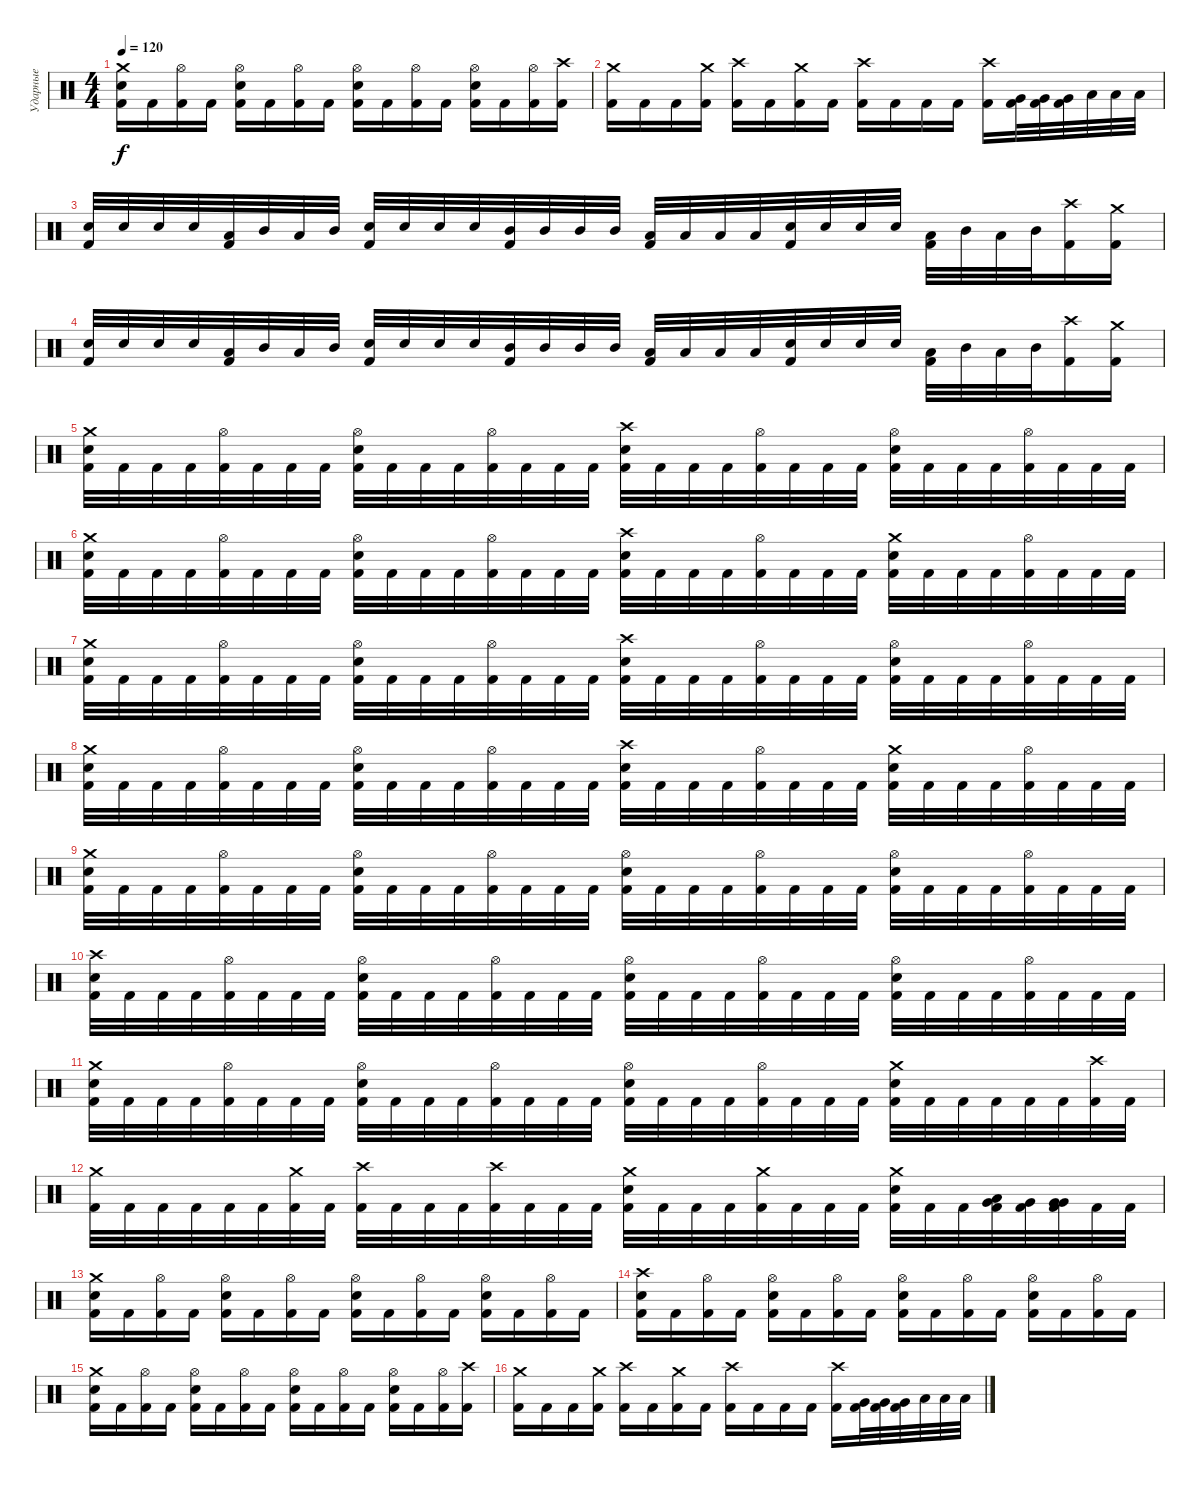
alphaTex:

\track ("Ударные" "Ударные") {instrument percussion}
\staff {score}
\articulation defaults
\ts (4 4)
\tempo 120
\clef neutral
\ks c
("Crash medium (hit)" "Electric Snare (hit)" "Kick (hit) 2").16{dy f} "Kick (hit) 2".16 ("Hi-Hat (open)" "Kick (hit) 2").16 "Kick (hit) 2".16 ("Hi-Hat (open)" "Electric Snare (hit)" "Kick (hit) 2").16 "Kick (hit) 2".16 ("Hi-Hat (open)" "Kick (hit) 2").16 "Kick (hit) 2".16 ("Hi-Hat (open)" "Electric Snare (hit)" "Kick (hit) 2").16 "Kick (hit) 2".16 ("Hi-Hat (open)" "Kick (hit) 2").16 "Kick (hit) 2".16 ("Hi-Hat (open)" "Electric Snare (hit)" "Kick (hit) 2").16 "Kick (hit) 2".16 ("Hi-Hat (open)" "Kick (hit) 2").16 ("Crash high (hit)" "Kick (hit) 2").16 |
("Crash medium (hit)" "Kick (hit) 2").16 "Kick (hit) 2".16 "Kick (hit) 2".16 ("Crash medium (hit)" "Kick (hit) 2").16 ("Crash high (hit)" "Kick (hit) 2").16 "Kick (hit) 2".16 ("Crash medium (hit)" "Kick (hit) 2").16 "Kick (hit) 2".16 ("Crash high (hit)" "Kick (hit) 2").16 "Kick (hit) 2".16 "Kick (hit) 2".16 "Kick (hit) 2".16 ("Crash high (hit)" "Kick (hit) 2").16 ("Very Low Tom (hit)" "Kick (hit) 2").32 ("Very Low Tom (hit)" "Kick (hit) 2").32 ("Very Low Tom (hit)" "Kick (hit) 2").32 "Low Tom (hit)".32 "Low Tom (hit)".32 "Low Tom (hit)".32 |
("Electric Snare (hit)" "Kick (hit) 2").32 "Electric Snare (hit)".32 "Electric Snare (hit)".32 "Electric Snare (hit)".32 ("Low Tom (hit)" "Kick (hit) 2").32 "Mid Tom (hit)".32 "Low Tom (hit)".32 "Mid Tom (hit)".32 ("Electric Snare (hit)" "Kick (hit) 2").32 "Electric Snare (hit)".32 "Electric Snare (hit)".32 "Electric Snare (hit)".32 ("Mid Tom (hit)" "Kick (hit) 2").32 "Mid Tom (hit)".32 "Mid Tom (hit)".32 "Mid Tom (hit)".32 ("Low Tom (hit)" "Kick (hit) 2").32 "Low Tom (hit)".32 "Low Tom (hit)".32 "Low Tom (hit)".32 ("Electric Snare (hit)" "Kick (hit) 2").32 "Electric Snare (hit)".32 "Electric Snare (hit)".32 "Electric Snare (hit)".32 ("Low Tom (hit)" "Kick (hit) 2").32 "Mid Tom (hit)".32 "Low Tom (hit)".32 "Mid Tom (hit)".32 ("Crash high (hit)" "Kick (hit) 2").16 ("Crash medium (hit)" "Kick (hit) 2").16 |
("Electric Snare (hit)" "Kick (hit) 2").32 "Electric Snare (hit)".32 "Electric Snare (hit)".32 "Electric Snare (hit)".32 ("Low Tom (hit)" "Kick (hit) 2").32 "Mid Tom (hit)".32 "Low Tom (hit)".32 "Mid Tom (hit)".32 ("Electric Snare (hit)" "Kick (hit) 2").32 "Electric Snare (hit)".32 "Electric Snare (hit)".32 "Electric Snare (hit)".32 ("Mid Tom (hit)" "Kick (hit) 2").32 "Mid Tom (hit)".32 "Mid Tom (hit)".32 "Mid Tom (hit)".32 ("Low Tom (hit)" "Kick (hit) 2").32 "Low Tom (hit)".32 "Low Tom (hit)".32 "Low Tom (hit)".32 ("Electric Snare (hit)" "Kick (hit) 2").32 "Electric Snare (hit)".32 "Electric Snare (hit)".32 "Electric Snare (hit)".32 ("Low Tom (hit)" "Kick (hit) 2").32 "Mid Tom (hit)".32 "Low Tom (hit)".32 "Mid Tom (hit)".32 ("Crash high (hit)" "Kick (hit) 2").16 ("Crash medium (hit)" "Kick (hit) 2").16 |
("Crash medium (hit)" "Electric Snare (hit)" "Kick (hit) 2").32 "Kick (hit) 2".32 "Kick (hit) 2".32 "Kick (hit) 2".32 ("Hi-Hat (open)" "Kick (hit) 2").32 "Kick (hit) 2".32 "Kick (hit) 2".32 "Kick (hit) 2".32 ("Hi-Hat (open)" "Electric Snare (hit)" "Kick (hit) 2").32 "Kick (hit) 2".32 "Kick (hit) 2".32 "Kick (hit) 2".32 ("Hi-Hat (open)" "Kick (hit) 2").32 "Kick (hit) 2".32 "Kick (hit) 2".32 "Kick (hit) 2".32 ("Crash high (hit)" "Electric Snare (hit)" "Kick (hit) 2").32 "Kick (hit) 2".32 "Kick (hit) 2".32 "Kick (hit) 2".32 ("Hi-Hat (open)" "Kick (hit) 2").32 "Kick (hit) 2".32 "Kick (hit) 2".32 "Kick (hit) 2".32 ("Hi-Hat (open)" "Electric Snare (hit)" "Kick (hit) 2").32 "Kick (hit) 2".32 "Kick (hit) 2".32 "Kick (hit) 2".32 ("Hi-Hat (open)" "Kick (hit) 2").32 "Kick (hit) 2".32 "Kick (hit) 2".32 "Kick (hit) 2".32 |
("Crash medium (hit)" "Electric Snare (hit)" "Kick (hit) 2").32 "Kick (hit) 2".32 "Kick (hit) 2".32 "Kick (hit) 2".32 ("Hi-Hat (open)" "Kick (hit) 2").32 "Kick (hit) 2".32 "Kick (hit) 2".32 "Kick (hit) 2".32 ("Hi-Hat (open)" "Electric Snare (hit)" "Kick (hit) 2").32 "Kick (hit) 2".32 "Kick (hit) 2".32 "Kick (hit) 2".32 ("Hi-Hat (open)" "Kick (hit) 2").32 "Kick (hit) 2".32 "Kick (hit) 2".32 "Kick (hit) 2".32 ("Crash high (hit)" "Electric Snare (hit)" "Kick (hit) 2").32 "Kick (hit) 2".32 "Kick (hit) 2".32 "Kick (hit) 2".32 ("Hi-Hat (open)" "Kick (hit) 2").32 "Kick (hit) 2".32 "Kick (hit) 2".32 "Kick (hit) 2".32 ("Crash medium (hit)" "Electric Snare (hit)" "Kick (hit) 2").32 "Kick (hit) 2".32 "Kick (hit) 2".32 "Kick (hit) 2".32 ("Hi-Hat (open)" "Kick (hit) 2").32 "Kick (hit) 2".32 "Kick (hit) 2".32 "Kick (hit) 2".32 |
("Crash medium (hit)" "Electric Snare (hit)" "Kick (hit) 2").32 "Kick (hit) 2".32 "Kick (hit) 2".32 "Kick (hit) 2".32 ("Hi-Hat (open)" "Kick (hit) 2").32 "Kick (hit) 2".32 "Kick (hit) 2".32 "Kick (hit) 2".32 ("Hi-Hat (open)" "Electric Snare (hit)" "Kick (hit) 2").32 "Kick (hit) 2".32 "Kick (hit) 2".32 "Kick (hit) 2".32 ("Hi-Hat (open)" "Kick (hit) 2").32 "Kick (hit) 2".32 "Kick (hit) 2".32 "Kick (hit) 2".32 ("Crash high (hit)" "Electric Snare (hit)" "Kick (hit) 2").32 "Kick (hit) 2".32 "Kick (hit) 2".32 "Kick (hit) 2".32 ("Hi-Hat (open)" "Kick (hit) 2").32 "Kick (hit) 2".32 "Kick (hit) 2".32 "Kick (hit) 2".32 ("Hi-Hat (open)" "Electric Snare (hit)" "Kick (hit) 2").32 "Kick (hit) 2".32 "Kick (hit) 2".32 "Kick (hit) 2".32 ("Hi-Hat (open)" "Kick (hit) 2").32 "Kick (hit) 2".32 "Kick (hit) 2".32 "Kick (hit) 2".32 |
("Crash medium (hit)" "Electric Snare (hit)" "Kick (hit) 2").32 "Kick (hit) 2".32 "Kick (hit) 2".32 "Kick (hit) 2".32 ("Hi-Hat (open)" "Kick (hit) 2").32 "Kick (hit) 2".32 "Kick (hit) 2".32 "Kick (hit) 2".32 ("Hi-Hat (open)" "Electric Snare (hit)" "Kick (hit) 2").32 "Kick (hit) 2".32 "Kick (hit) 2".32 "Kick (hit) 2".32 ("Hi-Hat (open)" "Kick (hit) 2").32 "Kick (hit) 2".32 "Kick (hit) 2".32 "Kick (hit) 2".32 ("Crash high (hit)" "Electric Snare (hit)" "Kick (hit) 2").32 "Kick (hit) 2".32 "Kick (hit) 2".32 "Kick (hit) 2".32 ("Hi-Hat (open)" "Kick (hit) 2").32 "Kick (hit) 2".32 "Kick (hit) 2".32 "Kick (hit) 2".32 ("Crash medium (hit)" "Electric Snare (hit)" "Kick (hit) 2").32 "Kick (hit) 2".32 "Kick (hit) 2".32 "Kick (hit) 2".32 ("Hi-Hat (open)" "Kick (hit) 2").32 "Kick (hit) 2".32 "Kick (hit) 2".32 "Kick (hit) 2".32 |
("Crash medium (hit)" "Electric Snare (hit)" "Kick (hit) 2").32 "Kick (hit) 2".32 "Kick (hit) 2".32 "Kick (hit) 2".32 ("Hi-Hat (open)" "Kick (hit) 2").32 "Kick (hit) 2".32 "Kick (hit) 2".32 "Kick (hit) 2".32 ("Hi-Hat (open)" "Electric Snare (hit)" "Kick (hit) 2").32 "Kick (hit) 2".32 "Kick (hit) 2".32 "Kick (hit) 2".32 ("Hi-Hat (open)" "Kick (hit) 2").32 "Kick (hit) 2".32 "Kick (hit) 2".32 "Kick (hit) 2".32 ("Hi-Hat (open)" "Electric Snare (hit)" "Kick (hit) 2").32 "Kick (hit) 2".32 "Kick (hit) 2".32 "Kick (hit) 2".32 ("Hi-Hat (open)" "Kick (hit) 2").32 "Kick (hit) 2".32 "Kick (hit) 2".32 "Kick (hit) 2".32 ("Hi-Hat (open)" "Electric Snare (hit)" "Kick (hit) 2").32 "Kick (hit) 2".32 "Kick (hit) 2".32 "Kick (hit) 2".32 ("Hi-Hat (open)" "Kick (hit) 2").32 "Kick (hit) 2".32 "Kick (hit) 2".32 "Kick (hit) 2".32 |
("Crash high (hit)" "Electric Snare (hit)" "Kick (hit) 2").32 "Kick (hit) 2".32 "Kick (hit) 2".32 "Kick (hit) 2".32 ("Hi-Hat (open)" "Kick (hit) 2").32 "Kick (hit) 2".32 "Kick (hit) 2".32 "Kick (hit) 2".32 ("Hi-Hat (open)" "Electric Snare (hit)" "Kick (hit) 2").32 "Kick (hit) 2".32 "Kick (hit) 2".32 "Kick (hit) 2".32 ("Hi-Hat (open)" "Kick (hit) 2").32 "Kick (hit) 2".32 "Kick (hit) 2".32 "Kick (hit) 2".32 ("Hi-Hat (open)" "Electric Snare (hit)" "Kick (hit) 2").32 "Kick (hit) 2".32 "Kick (hit) 2".32 "Kick (hit) 2".32 ("Hi-Hat (open)" "Kick (hit) 2").32 "Kick (hit) 2".32 "Kick (hit) 2".32 "Kick (hit) 2".32 ("Hi-Hat (open)" "Electric Snare (hit)" "Kick (hit) 2").32 "Kick (hit) 2".32 "Kick (hit) 2".32 "Kick (hit) 2".32 ("Hi-Hat (open)" "Kick (hit) 2").32 "Kick (hit) 2".32 "Kick (hit) 2".32 "Kick (hit) 2".32 |
("Crash medium (hit)" "Electric Snare (hit)" "Kick (hit) 2").32 "Kick (hit) 2".32 "Kick (hit) 2".32 "Kick (hit) 2".32 ("Hi-Hat (open)" "Kick (hit) 2").32 "Kick (hit) 2".32 "Kick (hit) 2".32 "Kick (hit) 2".32 ("Hi-Hat (open)" "Electric Snare (hit)" "Kick (hit) 2").32 "Kick (hit) 2".32 "Kick (hit) 2".32 "Kick (hit) 2".32 ("Hi-Hat (open)" "Kick (hit) 2").32 "Kick (hit) 2".32 "Kick (hit) 2".32 "Kick (hit) 2".32 ("Hi-Hat (open)" "Electric Snare (hit)" "Kick (hit) 2").32 "Kick (hit) 2".32 "Kick (hit) 2".32 "Kick (hit) 2".32 ("Hi-Hat (open)" "Kick (hit) 2").32 "Kick (hit) 2".32 "Kick (hit) 2".32 "Kick (hit) 2".32 ("Crash medium (hit)" "Electric Snare (hit)" "Kick (hit) 2").32 "Kick (hit) 2".32 "Kick (hit) 2".32 "Kick (hit) 2".32 "Kick (hit) 2".32 "Kick (hit) 2".32 ("Crash high (hit)" "Kick (hit) 2").32 "Kick (hit) 2".32 |
("Crash medium (hit)" "Kick (hit) 2").32 "Kick (hit) 2".32 "Kick (hit) 2".32 "Kick (hit) 2".32 "Kick (hit) 2".32 "Kick (hit) 2".32 ("Crash medium (hit)" "Kick (hit) 2").32 "Kick (hit) 2".32 ("Crash high (hit)" "Kick (hit) 2").32 "Kick (hit) 2".32 "Kick (hit) 2".32 "Kick (hit) 2".32 ("Crash high (hit)" "Kick (hit) 2").32 "Kick (hit) 2".32 "Kick (hit) 2".32 "Kick (hit) 2".32 ("Crash medium (hit)" "Electric Snare (hit)" "Kick (hit) 2").32 "Kick (hit) 2".32 "Kick (hit) 2".32 "Kick (hit) 2".32 ("Crash medium (hit)" "Kick (hit) 2").32 "Kick (hit) 2".32 "Kick (hit) 2".32 "Kick (hit) 2".32 ("Crash medium (hit)" "Electric Snare (hit)" "Kick (hit) 2").32 "Kick (hit) 2".32 "Kick (hit) 2".32 ("Low Tom (hit)" "Very Low Tom (hit)" "Kick (hit) 2").32 ("Very Low Tom (hit)" "Kick (hit) 2").32 ("Very Low Tom (hit)" "Very Low Tom (hit)" "Kick (hit) 2").32 "Kick (hit) 2".32 "Kick (hit) 2".32 |
("Crash medium (hit)" "Electric Snare (hit)" "Kick (hit) 2").16 "Kick (hit) 2".16 ("Hi-Hat (open)" "Kick (hit) 2").16 "Kick (hit) 2".16 ("Hi-Hat (open)" "Electric Snare (hit)" "Kick (hit) 2").16 "Kick (hit) 2".16 ("Hi-Hat (open)" "Kick (hit) 2").16 "Kick (hit) 2".16 ("Hi-Hat (open)" "Electric Snare (hit)" "Kick (hit) 2").16 "Kick (hit) 2".16 ("Hi-Hat (open)" "Kick (hit) 2").16 "Kick (hit) 2".16 ("Hi-Hat (open)" "Electric Snare (hit)" "Kick (hit) 2").16 "Kick (hit) 2".16 ("Hi-Hat (open)" "Kick (hit) 2").16 "Kick (hit) 2".16 |
("Crash high (hit)" "Electric Snare (hit)" "Kick (hit) 2").16 "Kick (hit) 2".16 ("Hi-Hat (open)" "Kick (hit) 2").16 "Kick (hit) 2".16 ("Hi-Hat (open)" "Electric Snare (hit)" "Kick (hit) 2").16 "Kick (hit) 2".16 ("Hi-Hat (open)" "Kick (hit) 2").16 "Kick (hit) 2".16 ("Hi-Hat (open)" "Electric Snare (hit)" "Kick (hit) 2").16 "Kick (hit) 2".16 ("Hi-Hat (open)" "Kick (hit) 2").16 "Kick (hit) 2".16 ("Hi-Hat (open)" "Electric Snare (hit)" "Kick (hit) 2").16 "Kick (hit) 2".16 ("Hi-Hat (open)" "Kick (hit) 2").16 "Kick (hit) 2".16 |
("Crash medium (hit)" "Electric Snare (hit)" "Kick (hit) 2").16 "Kick (hit) 2".16 ("Hi-Hat (open)" "Kick (hit) 2").16 "Kick (hit) 2".16 ("Hi-Hat (open)" "Electric Snare (hit)" "Kick (hit) 2").16 "Kick (hit) 2".16 ("Hi-Hat (open)" "Kick (hit) 2").16 "Kick (hit) 2".16 ("Hi-Hat (open)" "Electric Snare (hit)" "Kick (hit) 2").16 "Kick (hit) 2".16 ("Hi-Hat (open)" "Kick (hit) 2").16 "Kick (hit) 2".16 ("Hi-Hat (open)" "Electric Snare (hit)" "Kick (hit) 2").16 "Kick (hit) 2".16 ("Hi-Hat (open)" "Kick (hit) 2").16 ("Crash high (hit)" "Kick (hit) 2").16 |
("Crash medium (hit)" "Kick (hit) 2").16 "Kick (hit) 2".16 "Kick (hit) 2".16 ("Crash medium (hit)" "Kick (hit) 2").16 ("Crash high (hit)" "Kick (hit) 2").16 "Kick (hit) 2".16 ("Crash medium (hit)" "Kick (hit) 2").16 "Kick (hit) 2".16 ("Crash high (hit)" "Kick (hit) 2").16 "Kick (hit) 2".16 "Kick (hit) 2".16 "Kick (hit) 2".16 ("Crash high (hit)" "Kick (hit) 2").16 ("Very Low Tom (hit)" "Kick (hit) 2").32 ("Very Low Tom (hit)" "Kick (hit) 2").32 ("Very Low Tom (hit)" "Kick (hit) 2").32 "Low Tom (hit)".32 "Low Tom (hit)".32 "Low Tom (hit)".32
